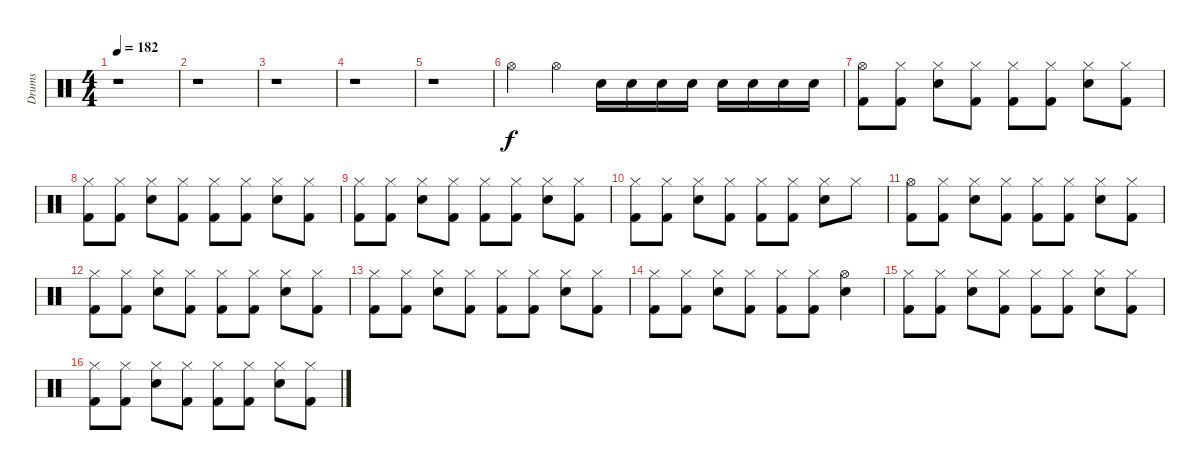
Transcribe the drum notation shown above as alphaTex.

\track ("Drums" "Drums") {instrument percussion}
\staff {score}
\articulation defaults
\ts (4 4)
\tempo 182
\clef neutral
\ks c
r.1{dy f} |
r.1 |
r.1 |
r.1 |
r.1 |
"Hi-Hat (open)".4 "Hi-Hat (open)".4 "Snare (hit) 2".16 "Snare (hit) 2".16 "Snare (hit) 2".16 "Snare (hit) 2".16 "Snare (hit) 2".16 "Snare (hit) 2".16 "Snare (hit) 2".16 "Snare (hit) 2".16 |
("Kick (hit) 2" "Hi-Hat (open)").8 ("Kick (hit) 2" "Hi-Hat (closed)").8 ("Snare (hit) 2" "Hi-Hat (closed)").8 ("Kick (hit) 2" "Hi-Hat (closed)").8 ("Kick (hit) 2" "Hi-Hat (closed)").8 ("Kick (hit) 2" "Hi-Hat (closed)").8 ("Snare (hit) 2" "Hi-Hat (closed)").8 ("Kick (hit) 2" "Hi-Hat (closed)").8 |
("Kick (hit) 2" "Hi-Hat (closed)").8 ("Kick (hit) 2" "Hi-Hat (closed)").8 ("Snare (hit) 2" "Hi-Hat (closed)").8 ("Kick (hit) 2" "Hi-Hat (closed)").8 ("Kick (hit) 2" "Hi-Hat (closed)").8 ("Kick (hit) 2" "Hi-Hat (closed)").8 ("Snare (hit) 2" "Hi-Hat (closed)").8 ("Kick (hit) 2" "Hi-Hat (closed)").8 |
("Kick (hit) 2" "Hi-Hat (closed)").8 ("Kick (hit) 2" "Hi-Hat (closed)").8 ("Snare (hit) 2" "Hi-Hat (closed)").8 ("Kick (hit) 2" "Hi-Hat (closed)").8 ("Kick (hit) 2" "Hi-Hat (closed)").8 ("Kick (hit) 2" "Hi-Hat (closed)").8 ("Snare (hit) 2" "Hi-Hat (closed)").8 ("Kick (hit) 2" "Hi-Hat (closed)").8 |
("Kick (hit) 2" "Hi-Hat (closed)").8 ("Kick (hit) 2" "Hi-Hat (closed)").8 ("Snare (hit) 2" "Hi-Hat (closed)").8 ("Kick (hit) 2" "Hi-Hat (closed)").8 ("Kick (hit) 2" "Hi-Hat (closed)").8 ("Kick (hit) 2" "Hi-Hat (closed)").8 ("Snare (hit) 2" "Hi-Hat (closed)").8 "Hi-Hat (closed)".8 |
("Kick (hit) 2" "Hi-Hat (open)").8 ("Kick (hit) 2" "Hi-Hat (closed)").8 ("Snare (hit) 2" "Hi-Hat (closed)").8 ("Kick (hit) 2" "Hi-Hat (closed)").8 ("Kick (hit) 2" "Hi-Hat (closed)").8 ("Kick (hit) 2" "Hi-Hat (closed)").8 ("Snare (hit) 2" "Hi-Hat (closed)").8 ("Kick (hit) 2" "Hi-Hat (closed)").8 |
("Kick (hit) 2" "Hi-Hat (closed)").8 ("Kick (hit) 2" "Hi-Hat (closed)").8 ("Snare (hit) 2" "Hi-Hat (closed)").8 ("Kick (hit) 2" "Hi-Hat (closed)").8 ("Kick (hit) 2" "Hi-Hat (closed)").8 ("Kick (hit) 2" "Hi-Hat (closed)").8 ("Snare (hit) 2" "Hi-Hat (closed)").8 ("Kick (hit) 2" "Hi-Hat (closed)").8 |
("Kick (hit) 2" "Hi-Hat (closed)").8 ("Kick (hit) 2" "Hi-Hat (closed)").8 ("Snare (hit) 2" "Hi-Hat (closed)").8 ("Kick (hit) 2" "Hi-Hat (closed)").8 ("Kick (hit) 2" "Hi-Hat (closed)").8 ("Kick (hit) 2" "Hi-Hat (closed)").8 ("Snare (hit) 2" "Hi-Hat (closed)").8 ("Kick (hit) 2" "Hi-Hat (closed)").8 |
("Kick (hit) 2" "Hi-Hat (closed)").8 ("Kick (hit) 2" "Hi-Hat (closed)").8 ("Snare (hit) 2" "Hi-Hat (closed)").8 ("Kick (hit) 2" "Hi-Hat (closed)").8 ("Kick (hit) 2" "Hi-Hat (closed)").8 ("Kick (hit) 2" "Hi-Hat (closed)").8 ("Snare (hit) 2" "Hi-Hat (open)").4 |
("Kick (hit) 2" "Hi-Hat (closed)").8 ("Kick (hit) 2" "Hi-Hat (closed)").8 ("Snare (hit) 2" "Hi-Hat (closed)").8 ("Kick (hit) 2" "Hi-Hat (closed)").8 ("Kick (hit) 2" "Hi-Hat (closed)").8 ("Kick (hit) 2" "Hi-Hat (closed)").8 ("Snare (hit) 2" "Hi-Hat (closed)").8 ("Kick (hit) 2" "Hi-Hat (closed)").8 |
("Kick (hit) 2" "Hi-Hat (closed)").8 ("Kick (hit) 2" "Hi-Hat (closed)").8 ("Snare (hit) 2" "Hi-Hat (closed)").8 ("Kick (hit) 2" "Hi-Hat (closed)").8 ("Kick (hit) 2" "Hi-Hat (closed)").8 ("Kick (hit) 2" "Hi-Hat (closed)").8 ("Snare (hit) 2" "Hi-Hat (closed)").8 ("Kick (hit) 2" "Hi-Hat (closed)").8
